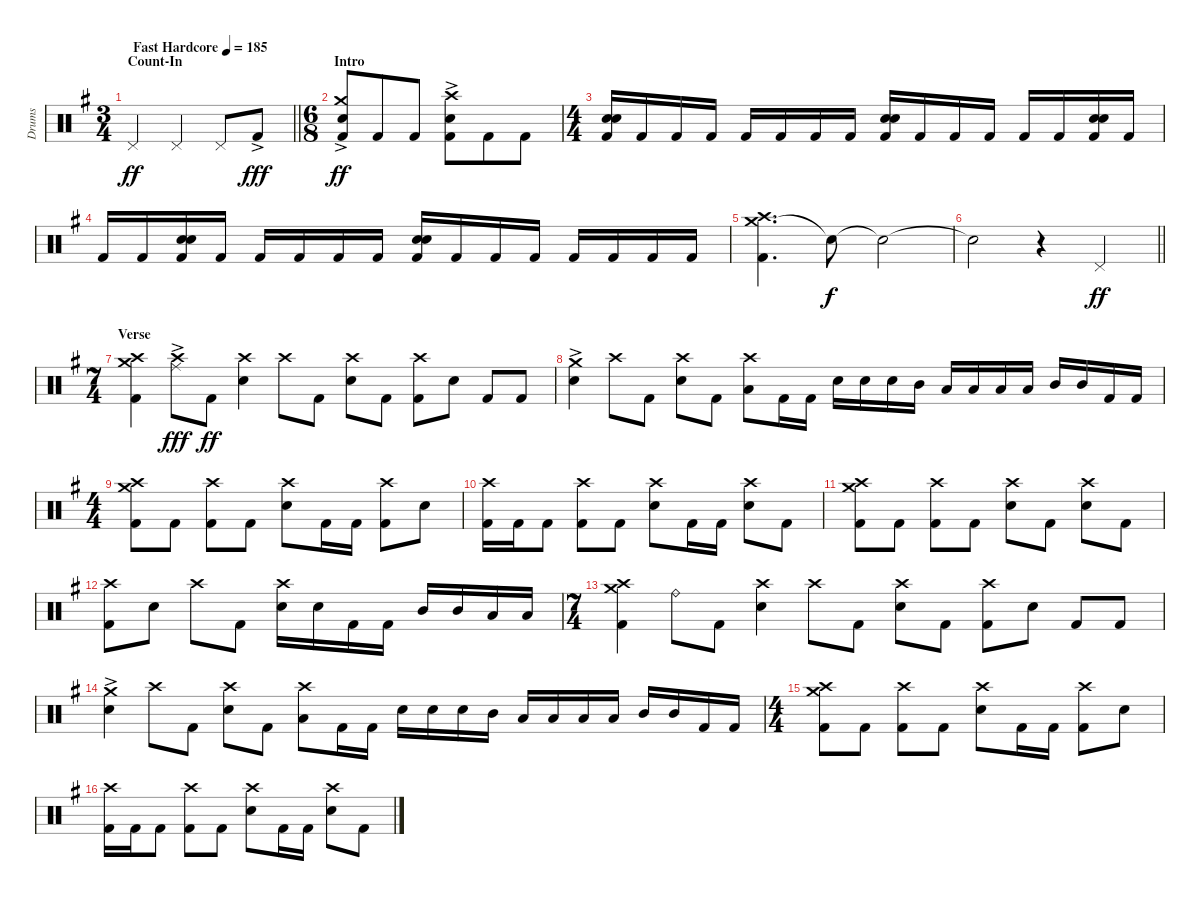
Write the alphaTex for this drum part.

\track ("Drums" "Drums") {instrument percussion}
\staff {score}
\articulation defaults
\ts (3 4)
\section ("" "Count-In")
\tempo (185 "Fast Hardcore")
\clef neutral
\barLineRight lightlight
\ks g "Pedal Hi-Hat (hit)".4{dy ff} "Pedal Hi-Hat (hit)".4 "Pedal Hi-Hat (hit)".8 "Kick (hit) 2"{ac}.8{dy fff}
|
\ts (6 8)
\section ("" "Intro")
("Crash medium (hit)"{ac} "Electric Snare (hit)" "Kick (hit) 2").8{dy ff} "Kick (hit) 2".8 "Kick (hit) 2".8 ("Crash high (hit)"{ac} "Electric Snare (hit)" "Kick (hit) 2").8 "Kick (hit) 2".8 "Kick (hit) 2".8 |
\ts (4 4)
("Electric Snare (hit)" "Electric Snare (hit)" "Kick (hit) 2").16{bu 60} "Kick (hit) 2".16 "Kick (hit) 2".16 "Kick (hit) 2".16 "Kick (hit) 2".16 "Kick (hit) 2".16 "Kick (hit) 2".16 "Kick (hit) 2".16 ("Electric Snare (hit)" "Electric Snare (hit)" "Kick (hit) 2").16{bu 60} "Kick (hit) 2".16 "Kick (hit) 2".16 "Kick (hit) 2".16 "Kick (hit) 2".16 "Kick (hit) 2".16 ("Electric Snare (hit)" "Electric Snare (hit)" "Kick (hit) 2").16{bu 60} "Kick (hit) 2".16 |
"Kick (hit) 2".16 "Kick (hit) 2".16 ("Electric Snare (hit)" "Electric Snare (hit)" "Kick (hit) 2").16{bu 60} "Kick (hit) 2".16 "Kick (hit) 2".16 "Kick (hit) 2".16 "Kick (hit) 2".16 "Kick (hit) 2".16 ("Electric Snare (hit)" "Electric Snare (hit)" "Kick (hit) 2").16{bu 60} "Kick (hit) 2".16 "Kick (hit) 2".16 "Kick (hit) 2".16 "Kick (hit) 2".16 "Kick (hit) 2".16 "Kick (hit) 2".16 "Kick (hit) 2".16 |
("Crash medium (hit)" "Crash high (hit)" "Kick (hit) 2").4{d} "Snare (hit)"{t}.8{dy f} "Snare (hit)"{t}.2 |
\barLineRight lightlight "Snare (hit)"{t}.2
r.4{volume 0} "Pedal Hi-Hat (hit)".4{dy ff volume 14} |
\ts (7 4)
\section ("" "Verse")
("Crash medium (hit)" "Crash high (hit)" "Kick (hit) 2").4 ("Crash high (hit)" "Ride (middle)"{ac}).8{dy fff} "Kick (hit) 2".8{dy ff} ("Crash high (hit)" "Electric Snare (hit)").4 "Crash high (hit)".8 "Kick (hit) 2".8 ("Crash high (hit)" "Electric Snare (hit)").8 "Kick (hit) 2".8 ("Crash high (hit)" "Kick (hit) 2").8 "Electric Snare (hit)".8 "Kick (hit) 2".8 "Kick (hit) 2".8 |
("Crash medium (hit)"{ac} "Electric Snare (hit)").4 "Crash high (hit)".8 "Kick (hit) 2".8 ("Crash high (hit)" "Electric Snare (hit)").8 "Kick (hit) 2".8 ("Crash high (hit)" "Low Tom (hit)").8 "Kick (hit) 2".16 "Kick (hit) 2".16 "Electric Snare (hit)".16 "Electric Snare (hit)".16 "Electric Snare (hit)".16 "Mid Tom (hit)".16 "Low Tom (hit)".16 "Low Tom (hit)".16 "Low Tom (hit)".16 "Low Tom (hit)".16 "Mid Tom (hit)".16 "Mid Tom (hit)".16 "Kick (hit) 2".16 "Kick (hit) 2".16 |
\ts (4 4)
("Crash medium (hit)" "Crash high (hit)" "Kick (hit) 2").8 "Kick (hit) 2".8 ("Crash high (hit)" "Kick (hit) 2").8 "Kick (hit) 2".8 ("Crash high (hit)" "Electric Snare (hit)").8 "Kick (hit) 2".16 "Kick (hit) 2".16 ("Crash high (hit)" "Kick (hit) 2").8 "Electric Snare (hit)".8 |
("Crash high (hit)" "Kick (hit) 2").16 "Kick (hit) 2".16 "Kick (hit) 2".8 ("Crash high (hit)" "Kick (hit) 2").8 "Kick (hit) 2".8 ("Crash high (hit)" "Electric Snare (hit)").8 "Kick (hit) 2".16 "Kick (hit) 2".16 ("Crash high (hit)" "Electric Snare (hit)").8 "Kick (hit) 2".8 |
("Crash medium (hit)" "Crash high (hit)" "Kick (hit) 2").8 "Kick (hit) 2".8 ("Crash high (hit)" "Kick (hit) 2").8 "Kick (hit) 2".8 ("Crash high (hit)" "Electric Snare (hit)").8 "Kick (hit) 2".8 ("Crash high (hit)" "Electric Snare (hit)").8 "Kick (hit) 2".8 |
("Crash high (hit)" "Kick (hit) 2").8 "Electric Snare (hit)".8 "Crash high (hit)".8 "Kick (hit) 2".8 ("Crash high (hit)" "Electric Snare (hit)").16 "Electric Snare (hit)".16 "Kick (hit) 2".16 "Kick (hit) 2".16 "Mid Tom (hit)".16 "Mid Tom (hit)".16 "Low Tom (hit)".16 "Low Tom (hit)".16 |
\ts (7 4)
("Crash medium (hit)" "Crash high (hit)" "Kick (hit) 2").4 "Ride (bell)".8 "Kick (hit) 2".8 ("Crash high (hit)" "Electric Snare (hit)").4 "Crash high (hit)".8 "Kick (hit) 2".8 ("Crash high (hit)" "Electric Snare (hit)").8 "Kick (hit) 2".8 ("Crash high (hit)" "Kick (hit) 2").8 "Electric Snare (hit)".8 "Kick (hit) 2".8 "Kick (hit) 2".8 |
("Crash medium (hit)"{ac} "Electric Snare (hit)").4 "Crash high (hit)".8 "Kick (hit) 2".8 ("Crash high (hit)" "Electric Snare (hit)").8 "Kick (hit) 2".8 ("Crash high (hit)" "Low Tom (hit)").8 "Kick (hit) 2".16 "Kick (hit) 2".16 "Electric Snare (hit)".16 "Electric Snare (hit)".16 "Electric Snare (hit)".16 "Mid Tom (hit)".16 "Low Tom (hit)".16 "Low Tom (hit)".16 "Low Tom (hit)".16 "Low Tom (hit)".16 "Mid Tom (hit)".16 "Mid Tom (hit)".16 "Kick (hit) 2".16 "Kick (hit) 2".16 |
\ts (4 4)
("Crash medium (hit)" "Crash high (hit)" "Kick (hit) 2").8 "Kick (hit) 2".8 ("Crash high (hit)" "Kick (hit) 2").8 "Kick (hit) 2".8 ("Crash high (hit)" "Electric Snare (hit)").8 "Kick (hit) 2".16 "Kick (hit) 2".16 ("Crash high (hit)" "Kick (hit) 2").8 "Electric Snare (hit)".8 |
("Crash high (hit)" "Kick (hit) 2").16 "Kick (hit) 2".16 "Kick (hit) 2".8 ("Crash high (hit)" "Kick (hit) 2").8 "Kick (hit) 2".8 ("Crash high (hit)" "Electric Snare (hit)").8 "Kick (hit) 2".16 "Kick (hit) 2".16 ("Crash high (hit)" "Electric Snare (hit)").8 "Kick (hit) 2".8
